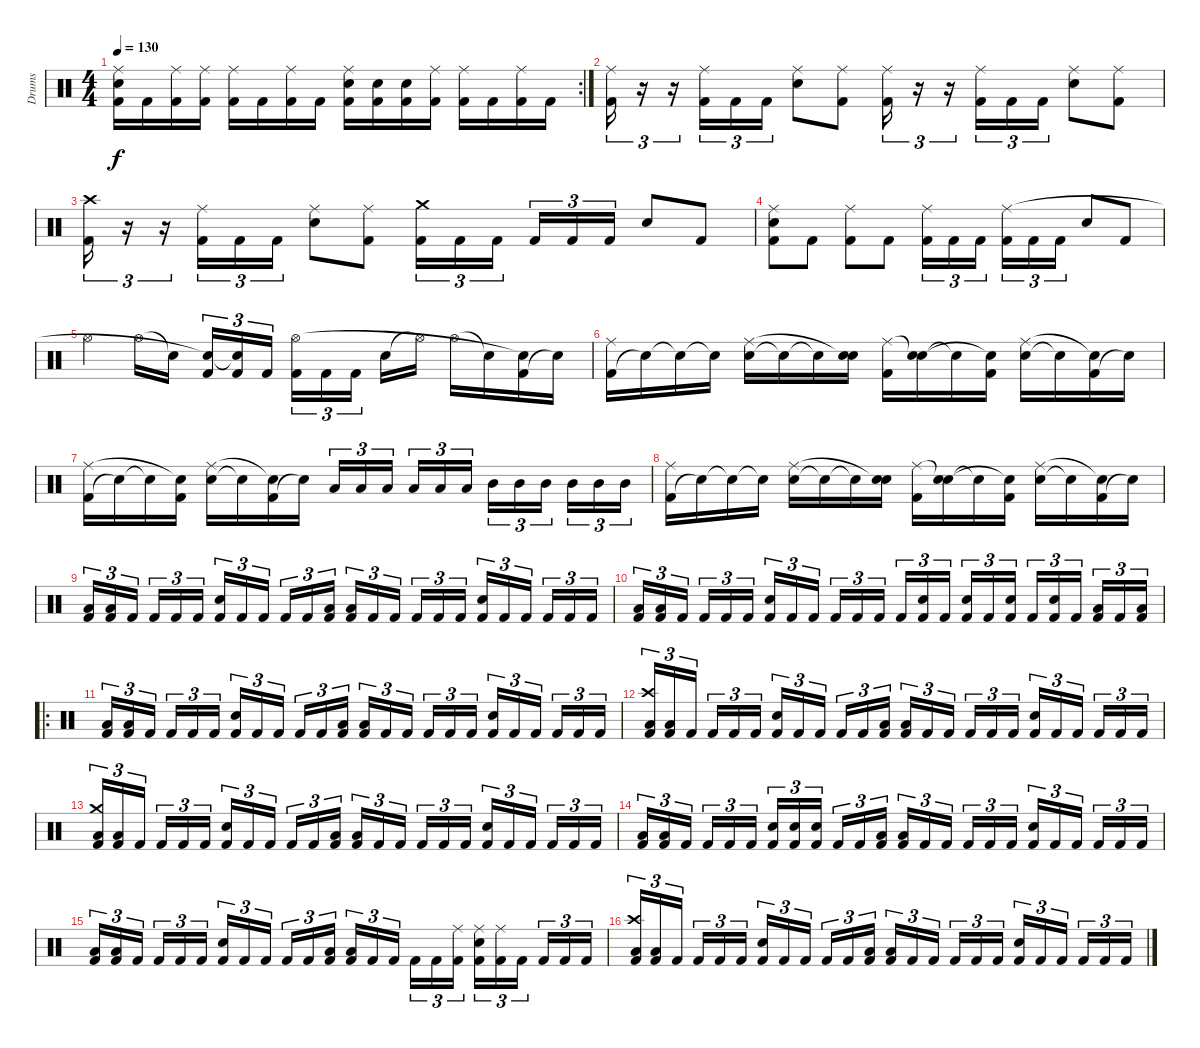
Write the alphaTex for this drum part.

\track ("Drums" "Drums") {instrument percussion}
\staff {score}
\articulation defaults
\rc 2
\ts (4 4)
\tempo 130
\clef neutral
\ks c
("Kick (hit) 2" "Snare (hit) 2" "Ride (middle)").16{dy f} "Kick (hit) 2".16 ("Kick (hit) 2" "Ride (middle)").16 ("Kick (hit) 2" "Ride (middle)").16 ("Kick (hit) 2" "Ride (middle)").16 "Kick (hit) 2".16 ("Kick (hit) 2" "Ride (middle)").16 "Kick (hit) 2".16 ("Kick (hit) 2" "Snare (hit) 2" "Ride (middle)").16 ("Kick (hit) 2" "Snare (hit) 2").16 ("Kick (hit) 2" "Snare (hit) 2").16 ("Kick (hit) 2" "Ride (middle)").16 ("Kick (hit) 2" "Ride (middle)").16 "Kick (hit) 2".16 ("Kick (hit) 2" "Ride (middle)").16 "Kick (hit) 2".16 |
("Kick (hit) 2" "Ride (middle)").16{tu (3 2)} r.16{tu (3 2)} r.16{tu (3 2)} ("Kick (hit) 2" "Ride (middle)").16{tu (3 2)} "Kick (hit) 2".16{tu (3 2)} "Kick (hit) 2".16{tu (3 2)} ("Snare (hit) 2" "Ride (middle)").8 ("Kick (hit) 2" "Ride (middle)").8 ("Kick (hit) 2" "Ride (middle)").16{tu (3 2)} r.16{tu (3 2)} r.16{tu (3 2)} ("Kick (hit) 2" "Ride (middle)").16{tu (3 2)} "Kick (hit) 2".16{tu (3 2)} "Kick (hit) 2".16{tu (3 2)} ("Snare (hit) 2" "Ride (middle)").8 ("Kick (hit) 2" "Ride (middle)").8 |
("Kick (hit) 2" "Crash high (hit)").16{tu (3 2)} r.16{tu (3 2)} r.16{tu (3 2)} ("Kick (hit) 2" "Ride (middle)").16{tu (3 2)} "Kick (hit) 2".16{tu (3 2)} "Kick (hit) 2".16{tu (3 2)} ("Snare (hit) 2" "Ride (middle)").8 ("Kick (hit) 2" "Ride (middle)").8 ("Kick (hit) 2" "Crash medium (hit)").16{tu (3 2)} "Kick (hit) 2".16{tu (3 2)} "Kick (hit) 2".16{tu (3 2)} "Kick (hit) 2".16{tu (3 2)} "Kick (hit) 2".16{tu (3 2)} "Kick (hit) 2".16{tu (3 2)} "Snare (hit) 2".8 "Kick (hit) 2".8 |
("Kick (hit) 2" "Snare (hit) 2" "Ride (middle)").8 "Kick (hit) 2".8 ("Kick (hit) 2" "Ride (middle)").8 "Kick (hit) 2".8 ("Kick (hit) 2" "Ride (middle)").16{tu (3 2)} "Kick (hit) 2".16{tu (3 2)} "Kick (hit) 2".16{tu (3 2)} ("Kick (hit) 2" "Ride (middle)").16{tu (3 2)} "Kick (hit) 2".16{tu (3 2)} "Kick (hit) 2".16{tu (3 2)} "Snare (hit) 2".8 "Kick (hit) 2".8 |
"Hi-Hat (open)".4 "Hi-Hat (open)".16 "Snare (hit)"{t}.16 ("Kick (hit) 2" "Snare (hit)"{t}).16{tu (3 2)} ("Kick (hit) 2" "Snare (hit)"{t}).16{tu (3 2)} "Kick (hit) 2".16{tu (3 2)} ("Kick (hit) 2" "Hi-Hat (open)").16{tu (3 2)} "Kick (hit) 2".16{tu (3 2)} "Kick (hit) 2".16{tu (3 2)} "Snare (hit) 2".16 "Hi-Hat (open)"{t}.16 "Hi-Hat (open)".16 "Snare (hit)"{t}.16 ("Kick (hit) 2" "Snare (hit)"{t}).16 "Snare (hit)"{t}.16 |
("Kick (hit) 2" "Ride (middle)").16 "Snare (hit)"{t}.16 "Snare (hit)"{t}.16 "Snare (hit)"{t}.16 ("Snare (hit) 2" "Ride (middle)").16 "Snare (hit)"{t}.16 "Snare (hit)"{t}.16 ("Snare (hit) 2" "Snare (hit)"{t}).16 ("Kick (hit) 2" "Ride (middle)").16 ("Snare (hit) 2" "Snare (hit)"{t}).16 "Snare (hit)"{t}.16 ("Kick (hit) 2" "Snare (hit)"{t}).16 ("Snare (hit) 2" "Ride (middle)").16 "Snare (hit)"{t}.16 ("Kick (hit) 2" "Snare (hit)"{t}).16 "Snare (hit)"{t}.16 |
("Kick (hit) 2" "Ride (middle)").16 "Snare (hit)"{t}.16 "Snare (hit)"{t}.16 ("Kick (hit) 2" "Snare (hit)"{t}).16 ("Snare (hit) 2" "Ride (middle)").16 "Snare (hit)"{t}.16 ("Kick (hit) 2" "Snare (hit)"{t}).16 "Snare (hit)"{t}.16 "Low Tom (hit)".16{tu (3 2)} "Low Tom (hit)".16{tu (3 2)} "Low Tom (hit)".16{tu (3 2)} "Low Tom (hit)".16{tu (3 2)} "Low Tom (hit)".16{tu (3 2)} "Low Tom (hit)".16{tu (3 2)} "Mid Tom (hit)".16{tu (3 2)} "Mid Tom (hit)".16{tu (3 2)} "Mid Tom (hit)".16{tu (3 2)} "Mid Tom (hit)".16{tu (3 2)} "Mid Tom (hit)".16{tu (3 2)} "Mid Tom (hit)".16{tu (3 2)} |
("Kick (hit) 2" "Ride (middle)").16 "Snare (hit)"{t}.16 "Snare (hit)"{t}.16 "Snare (hit)"{t}.16 ("Snare (hit) 2" "Ride (middle)").16 "Snare (hit)"{t}.16 "Snare (hit)"{t}.16 ("Snare (hit) 2" "Snare (hit)"{t}).16 ("Kick (hit) 2" "Ride (middle)").16 ("Snare (hit) 2" "Snare (hit)"{t}).16 "Snare (hit)"{t}.16 ("Kick (hit) 2" "Snare (hit)"{t}).16 ("Snare (hit) 2" "Ride (middle)").16 "Snare (hit)"{t}.16 ("Kick (hit) 2" "Snare (hit)"{t}).16 "Snare (hit)"{t}.16 |
("Kick (hit) 2" "Low Floor Tom (hit)").16{tu (3 2)} ("Kick (hit) 2" "Low Floor Tom (hit)").16{tu (3 2)} "Kick (hit) 2".16{tu (3 2)} "Kick (hit) 2".16{tu (3 2)} "Kick (hit) 2".16{tu (3 2)} "Kick (hit) 2".16{tu (3 2)} ("Kick (hit) 2" "Snare (hit) 2").16{tu (3 2)} "Kick (hit) 2".16{tu (3 2)} "Kick (hit) 2".16{tu (3 2)} "Kick (hit) 2".16{tu (3 2)} "Kick (hit) 2".16{tu (3 2)} ("Kick (hit) 2" "Low Floor Tom (hit)").16{tu (3 2)} ("Kick (hit) 2" "Low Floor Tom (hit)").16{tu (3 2)} "Kick (hit) 2".16{tu (3 2)} "Kick (hit) 2".16{tu (3 2)} "Kick (hit) 2".16{tu (3 2)} "Kick (hit) 2".16{tu (3 2)} "Kick (hit) 2".16{tu (3 2)} ("Kick (hit) 2" "Snare (hit) 2").16{tu (3 2)} "Kick (hit) 2".16{tu (3 2)} "Kick (hit) 2".16{tu (3 2)} "Kick (hit) 2".16{tu (3 2)} "Kick (hit) 2".16{tu (3 2)} "Kick (hit) 2".16{tu (3 2)} |
("Kick (hit) 2" "Low Floor Tom (hit)").16{tu (3 2)} ("Kick (hit) 2" "Low Floor Tom (hit)").16{tu (3 2)} "Kick (hit) 2".16{tu (3 2)} "Kick (hit) 2".16{tu (3 2)} "Kick (hit) 2".16{tu (3 2)} "Kick (hit) 2".16{tu (3 2)} ("Kick (hit) 2" "Snare (hit) 2").16{tu (3 2)} "Kick (hit) 2".16{tu (3 2)} "Kick (hit) 2".16{tu (3 2)} "Kick (hit) 2".16{tu (3 2)} "Kick (hit) 2".16{tu (3 2)} "Kick (hit) 2".16{tu (3 2)} "Kick (hit) 2".16{tu (3 2)} ("Kick (hit) 2" "Snare (hit) 2").16{tu (3 2)} "Kick (hit) 2".16{tu (3 2)} ("Kick (hit) 2" "Snare (hit) 2").16{tu (3 2)} "Kick (hit) 2".16{tu (3 2)} ("Kick (hit) 2" "Snare (hit) 2").16{tu (3 2)} "Kick (hit) 2".16{tu (3 2)} ("Kick (hit) 2" "Snare (hit) 2").16{tu (3 2)} "Kick (hit) 2".16{tu (3 2)} ("Kick (hit) 2" "Low Floor Tom (hit)").16{tu (3 2)} "Kick (hit) 2".16{tu (3 2)} ("Kick (hit) 2" "Low Floor Tom (hit)").16{tu (3 2)} |
\ro
("Kick (hit) 2" "Low Floor Tom (hit)").16{tu (3 2)} ("Kick (hit) 2" "Low Floor Tom (hit)").16{tu (3 2)} "Kick (hit) 2".16{tu (3 2)} "Kick (hit) 2".16{tu (3 2)} "Kick (hit) 2".16{tu (3 2)} "Kick (hit) 2".16{tu (3 2)} ("Kick (hit) 2" "Snare (hit) 2").16{tu (3 2)} "Kick (hit) 2".16{tu (3 2)} "Kick (hit) 2".16{tu (3 2)} "Kick (hit) 2".16{tu (3 2)} "Kick (hit) 2".16{tu (3 2)} ("Kick (hit) 2" "Low Floor Tom (hit)").16{tu (3 2)} ("Kick (hit) 2" "Low Floor Tom (hit)").16{tu (3 2)} "Kick (hit) 2".16{tu (3 2)} "Kick (hit) 2".16{tu (3 2)} "Kick (hit) 2".16{tu (3 2)} "Kick (hit) 2".16{tu (3 2)} "Kick (hit) 2".16{tu (3 2)} ("Kick (hit) 2" "Snare (hit) 2").16{tu (3 2)} "Kick (hit) 2".16{tu (3 2)} "Kick (hit) 2".16{tu (3 2)} "Kick (hit) 2".16{tu (3 2)} "Kick (hit) 2".16{tu (3 2)} "Kick (hit) 2".16{tu (3 2)} |
("Kick (hit) 2" "Low Floor Tom (hit)" "Crash high (hit)").16{tu (3 2)} ("Kick (hit) 2" "Low Floor Tom (hit)").16{tu (3 2)} "Kick (hit) 2".16{tu (3 2)} "Kick (hit) 2".16{tu (3 2)} "Kick (hit) 2".16{tu (3 2)} "Kick (hit) 2".16{tu (3 2)} ("Kick (hit) 2" "Snare (hit) 2").16{tu (3 2)} "Kick (hit) 2".16{tu (3 2)} "Kick (hit) 2".16{tu (3 2)} "Kick (hit) 2".16{tu (3 2)} "Kick (hit) 2".16{tu (3 2)} ("Kick (hit) 2" "Low Floor Tom (hit)").16{tu (3 2)} ("Kick (hit) 2" "Low Floor Tom (hit)").16{tu (3 2)} "Kick (hit) 2".16{tu (3 2)} "Kick (hit) 2".16{tu (3 2)} "Kick (hit) 2".16{tu (3 2)} "Kick (hit) 2".16{tu (3 2)} "Kick (hit) 2".16{tu (3 2)} ("Kick (hit) 2" "Snare (hit) 2").16{tu (3 2)} "Kick (hit) 2".16{tu (3 2)} "Kick (hit) 2".16{tu (3 2)} "Kick (hit) 2".16{tu (3 2)} "Kick (hit) 2".16{tu (3 2)} "Kick (hit) 2".16{tu (3 2)} |
("Kick (hit) 2" "Low Floor Tom (hit)" "Crash medium (hit)").16{tu (3 2)} ("Kick (hit) 2" "Low Floor Tom (hit)").16{tu (3 2)} "Kick (hit) 2".16{tu (3 2)} "Kick (hit) 2".16{tu (3 2)} "Kick (hit) 2".16{tu (3 2)} "Kick (hit) 2".16{tu (3 2)} ("Kick (hit) 2" "Snare (hit) 2").16{tu (3 2)} "Kick (hit) 2".16{tu (3 2)} "Kick (hit) 2".16{tu (3 2)} "Kick (hit) 2".16{tu (3 2)} "Kick (hit) 2".16{tu (3 2)} ("Kick (hit) 2" "Low Floor Tom (hit)").16{tu (3 2)} ("Kick (hit) 2" "Low Floor Tom (hit)").16{tu (3 2)} "Kick (hit) 2".16{tu (3 2)} "Kick (hit) 2".16{tu (3 2)} "Kick (hit) 2".16{tu (3 2)} "Kick (hit) 2".16{tu (3 2)} "Kick (hit) 2".16{tu (3 2)} ("Kick (hit) 2" "Snare (hit) 2").16{tu (3 2)} "Kick (hit) 2".16{tu (3 2)} "Kick (hit) 2".16{tu (3 2)} "Kick (hit) 2".16{tu (3 2)} "Kick (hit) 2".16{tu (3 2)} "Kick (hit) 2".16{tu (3 2)} |
("Kick (hit) 2" "Low Floor Tom (hit)").16{tu (3 2)} ("Kick (hit) 2" "Low Floor Tom (hit)").16{tu (3 2)} "Kick (hit) 2".16{tu (3 2)} "Kick (hit) 2".16{tu (3 2)} "Kick (hit) 2".16{tu (3 2)} "Kick (hit) 2".16{tu (3 2)} ("Kick (hit) 2" "Snare (hit) 2").16{tu (3 2)} ("Kick (hit) 2" "Snare (hit) 2").16{tu (3 2)} ("Kick (hit) 2" "Snare (hit) 2").16{tu (3 2)} "Kick (hit) 2".16{tu (3 2)} "Kick (hit) 2".16{tu (3 2)} ("Kick (hit) 2" "Low Floor Tom (hit)").16{tu (3 2)} ("Kick (hit) 2" "Low Floor Tom (hit)").16{tu (3 2)} "Kick (hit) 2".16{tu (3 2)} "Kick (hit) 2".16{tu (3 2)} "Kick (hit) 2".16{tu (3 2)} "Kick (hit) 2".16{tu (3 2)} "Kick (hit) 2".16{tu (3 2)} ("Kick (hit) 2" "Snare (hit) 2").16{tu (3 2)} "Kick (hit) 2".16{tu (3 2)} "Kick (hit) 2".16{tu (3 2)} "Kick (hit) 2".16{tu (3 2)} "Kick (hit) 2".16{tu (3 2)} "Kick (hit) 2".16{tu (3 2)} |
("Kick (hit) 2" "Low Floor Tom (hit)").16{tu (3 2)} ("Kick (hit) 2" "Low Floor Tom (hit)").16{tu (3 2)} "Kick (hit) 2".16{tu (3 2)} "Kick (hit) 2".16{tu (3 2)} "Kick (hit) 2".16{tu (3 2)} "Kick (hit) 2".16{tu (3 2)} ("Kick (hit) 2" "Snare (hit) 2").16{tu (3 2)} "Kick (hit) 2".16{tu (3 2)} "Kick (hit) 2".16{tu (3 2)} "Kick (hit) 2".16{tu (3 2)} "Kick (hit) 2".16{tu (3 2)} ("Kick (hit) 2" "Low Floor Tom (hit)").16{tu (3 2)} ("Kick (hit) 2" "Low Floor Tom (hit)").16{tu (3 2)} "Kick (hit) 2".16{tu (3 2)} "Kick (hit) 2".16{tu (3 2)} "Kick (hit) 2".16{tu (3 2)} "Kick (hit) 2".16{tu (3 2)} ("Kick (hit) 2" "Ride (middle)").16{tu (3 2)} ("Kick (hit) 2" "Snare (hit) 2" "Ride (middle)").16{tu (3 2)} ("Kick (hit) 2" "Ride (middle)").16{tu (3 2)} "Kick (hit) 2".16{tu (3 2)} "Kick (hit) 2".16{tu (3 2)} "Kick (hit) 2".16{tu (3 2)} "Kick (hit) 2".16{tu (3 2)} |
("Kick (hit) 2" "Low Floor Tom (hit)" "Crash high (hit)").16{tu (3 2)} ("Kick (hit) 2" "Low Floor Tom (hit)").16{tu (3 2)} "Kick (hit) 2".16{tu (3 2)} "Kick (hit) 2".16{tu (3 2)} "Kick (hit) 2".16{tu (3 2)} "Kick (hit) 2".16{tu (3 2)} ("Kick (hit) 2" "Snare (hit) 2").16{tu (3 2)} "Kick (hit) 2".16{tu (3 2)} "Kick (hit) 2".16{tu (3 2)} "Kick (hit) 2".16{tu (3 2)} "Kick (hit) 2".16{tu (3 2)} ("Kick (hit) 2" "Low Floor Tom (hit)").16{tu (3 2)} ("Kick (hit) 2" "Low Floor Tom (hit)").16{tu (3 2)} "Kick (hit) 2".16{tu (3 2)} "Kick (hit) 2".16{tu (3 2)} "Kick (hit) 2".16{tu (3 2)} "Kick (hit) 2".16{tu (3 2)} "Kick (hit) 2".16{tu (3 2)} ("Kick (hit) 2" "Snare (hit) 2").16{tu (3 2)} "Kick (hit) 2".16{tu (3 2)} "Kick (hit) 2".16{tu (3 2)} "Kick (hit) 2".16{tu (3 2)} "Kick (hit) 2".16{tu (3 2)} "Kick (hit) 2".16{tu (3 2)}
